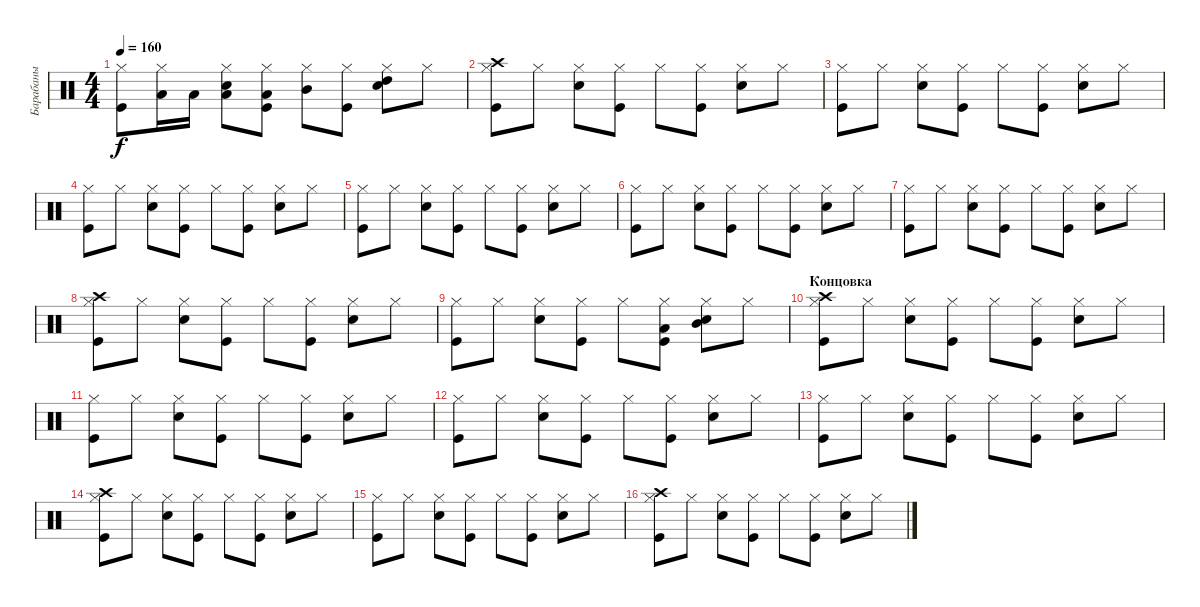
\track ("Барабаны" "Барабаны") {instrument percussion}
\staff {score}
\articulation defaults
\ts (4 4)
\tempo 160
\clef neutral
\ks c
("Kick (hit)" "Hi-Hat (closed)").8{dy f} ("Low Tom (hit)" "Hi-Hat (closed)").16 "Low Tom (hit)".16 ("Snare (hit) 2" "Low Tom (hit)" "Hi-Hat (closed)").8 ("Kick (hit)" "Low Tom (hit)" "Hi-Hat (closed)").8 ("Mid Tom (hit)" "Hi-Hat (closed)").8 ("Kick (hit)" "Hi-Hat (closed)").8 ("Snare (hit) 2" "High Tom (hit)" "Hi-Hat (closed)").8 "Hi-Hat (closed)".8 |
("Kick (hit)" "Crash high (hit)" "Hi-Hat (closed)").8 "Hi-Hat (closed)".8 ("Snare (hit) 2" "Hi-Hat (closed)").8 ("Kick (hit)" "Hi-Hat (closed)").8 "Hi-Hat (closed)".8 ("Kick (hit)" "Hi-Hat (closed)").8 ("Snare (hit) 2" "Hi-Hat (closed)").8 "Hi-Hat (closed)".8 |
("Kick (hit)" "Hi-Hat (closed)").8 "Hi-Hat (closed)".8 ("Snare (hit) 2" "Hi-Hat (closed)").8 ("Kick (hit)" "Hi-Hat (closed)").8 "Hi-Hat (closed)".8 ("Kick (hit)" "Hi-Hat (closed)").8 ("Snare (hit) 2" "Hi-Hat (closed)").8 "Hi-Hat (closed)".8 |
("Kick (hit)" "Hi-Hat (closed)").8 "Hi-Hat (closed)".8 ("Snare (hit) 2" "Hi-Hat (closed)").8 ("Kick (hit)" "Hi-Hat (closed)").8 "Hi-Hat (closed)".8 ("Kick (hit)" "Hi-Hat (closed)").8 ("Snare (hit) 2" "Hi-Hat (closed)").8 "Hi-Hat (closed)".8 |
("Kick (hit)" "Hi-Hat (closed)").8 "Hi-Hat (closed)".8 ("Snare (hit) 2" "Hi-Hat (closed)").8 ("Kick (hit)" "Hi-Hat (closed)").8 "Hi-Hat (closed)".8 ("Kick (hit)" "Hi-Hat (closed)").8 ("Snare (hit) 2" "Hi-Hat (closed)").8 "Hi-Hat (closed)".8 |
("Kick (hit)" "Hi-Hat (closed)").8 "Hi-Hat (closed)".8 ("Snare (hit) 2" "Hi-Hat (closed)").8 ("Kick (hit)" "Hi-Hat (closed)").8 "Hi-Hat (closed)".8 ("Kick (hit)" "Hi-Hat (closed)").8 ("Snare (hit) 2" "Hi-Hat (closed)").8 "Hi-Hat (closed)".8 |
("Kick (hit)" "Hi-Hat (closed)").8 "Hi-Hat (closed)".8 ("Snare (hit) 2" "Hi-Hat (closed)").8 ("Kick (hit)" "Hi-Hat (closed)").8 "Hi-Hat (closed)".8 ("Kick (hit)" "Hi-Hat (closed)").8 ("Snare (hit) 2" "Hi-Hat (closed)").8 "Hi-Hat (closed)".8 |
("Kick (hit)" "Crash high (hit)" "Hi-Hat (closed)").8 "Hi-Hat (closed)".8 ("Snare (hit) 2" "Hi-Hat (closed)").8 ("Kick (hit)" "Hi-Hat (closed)").8 "Hi-Hat (closed)".8 ("Kick (hit)" "Hi-Hat (closed)").8 ("Snare (hit) 2" "Hi-Hat (closed)").8 "Hi-Hat (closed)".8 |
("Kick (hit)" "Hi-Hat (closed)").8 "Hi-Hat (closed)".8 ("Snare (hit) 2" "Hi-Hat (closed)").8 ("Kick (hit)" "Hi-Hat (closed)").8 "Hi-Hat (closed)".8 ("Kick (hit)" "Low Tom (hit)" "Hi-Hat (closed)").8 ("Snare (hit) 2" "Mid Tom (hit)" "Hi-Hat (closed)").8 "Hi-Hat (closed)".8 |
\section ("" "Концовка")
("Kick (hit)" "Crash high (hit)" "Hi-Hat (closed)").8 "Hi-Hat (closed)".8 ("Snare (hit) 2" "Hi-Hat (closed)").8 ("Kick (hit)" "Hi-Hat (closed)").8 "Hi-Hat (closed)".8 ("Kick (hit)" "Hi-Hat (closed)").8 ("Snare (hit) 2" "Hi-Hat (closed)").8 "Hi-Hat (closed)".8 |
("Kick (hit)" "Hi-Hat (closed)").8 "Hi-Hat (closed)".8 ("Snare (hit) 2" "Hi-Hat (closed)").8 ("Kick (hit)" "Hi-Hat (closed)").8 "Hi-Hat (closed)".8 ("Kick (hit)" "Hi-Hat (closed)").8 ("Snare (hit) 2" "Hi-Hat (closed)").8 "Hi-Hat (closed)".8 |
("Kick (hit)" "Hi-Hat (closed)").8 "Hi-Hat (closed)".8 ("Snare (hit) 2" "Hi-Hat (closed)").8 ("Kick (hit)" "Hi-Hat (closed)").8 "Hi-Hat (closed)".8 ("Kick (hit)" "Hi-Hat (closed)").8 ("Snare (hit) 2" "Hi-Hat (closed)").8 "Hi-Hat (closed)".8 |
("Kick (hit)" "Hi-Hat (closed)").8 "Hi-Hat (closed)".8 ("Snare (hit) 2" "Hi-Hat (closed)").8 ("Kick (hit)" "Hi-Hat (closed)").8 "Hi-Hat (closed)".8 ("Kick (hit)" "Hi-Hat (closed)").8 ("Snare (hit) 2" "Hi-Hat (closed)").8 "Hi-Hat (closed)".8 |
("Kick (hit)" "Crash high (hit)" "Hi-Hat (closed)").8 "Hi-Hat (closed)".8 ("Snare (hit) 2" "Hi-Hat (closed)").8 ("Kick (hit)" "Hi-Hat (closed)").8 "Hi-Hat (closed)".8 ("Kick (hit)" "Hi-Hat (closed)").8 ("Snare (hit) 2" "Hi-Hat (closed)").8 "Hi-Hat (closed)".8 |
("Kick (hit)" "Hi-Hat (closed)").8 "Hi-Hat (closed)".8 ("Snare (hit) 2" "Hi-Hat (closed)").8 ("Kick (hit)" "Hi-Hat (closed)").8 "Hi-Hat (closed)".8 ("Kick (hit)" "Hi-Hat (closed)").8 ("Snare (hit) 2" "Hi-Hat (closed)").8 "Hi-Hat (closed)".8 |
("Kick (hit)" "Crash high (hit)" "Hi-Hat (closed)").8 "Hi-Hat (closed)".8 ("Snare (hit) 2" "Hi-Hat (closed)").8 ("Kick (hit)" "Hi-Hat (closed)").8 "Hi-Hat (closed)".8 ("Kick (hit)" "Hi-Hat (closed)").8 ("Snare (hit) 2" "Hi-Hat (closed)").8 "Hi-Hat (closed)".8
